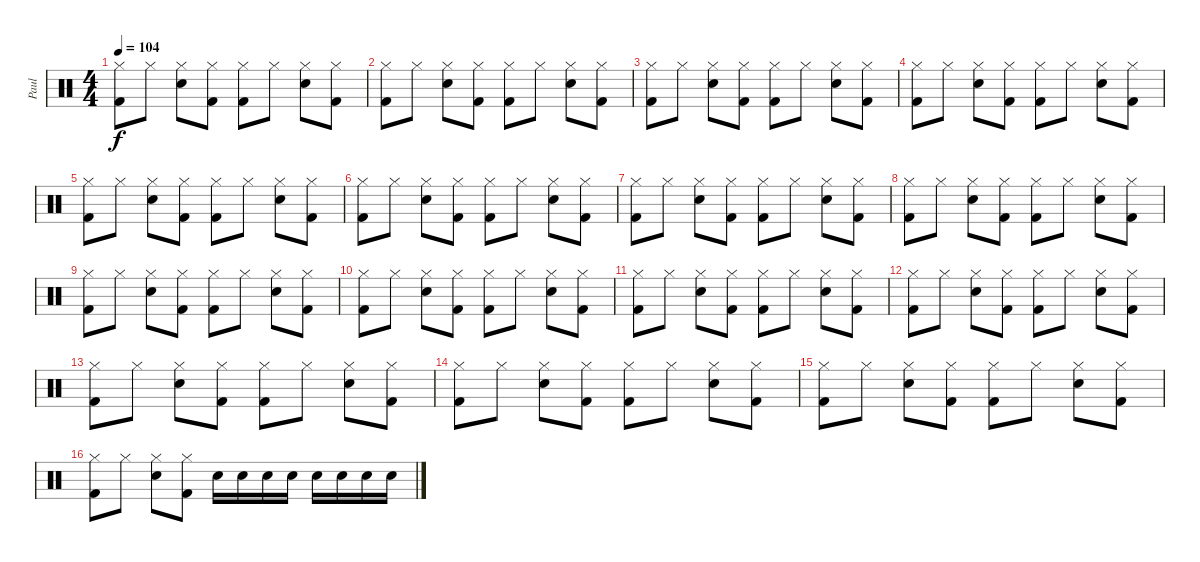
\track ("Paul" "Paul") {instrument percussion}
\staff {score}
\articulation defaults
\ts (4 4)
\tempo 104
\clef neutral
\ks c
("Hi-Hat (closed)" "Kick (hit) 2").8{dy f} "Hi-Hat (closed)".8 ("Hi-Hat (closed)" "Snare (hit) 2").8 ("Hi-Hat (closed)" "Kick (hit) 2").8 ("Hi-Hat (closed)" "Kick (hit) 2").8 "Hi-Hat (closed)".8 ("Hi-Hat (closed)" "Snare (hit) 2").8 ("Hi-Hat (closed)" "Kick (hit) 2").8 |
("Hi-Hat (closed)" "Kick (hit) 2").8 "Hi-Hat (closed)".8 ("Hi-Hat (closed)" "Snare (hit) 2").8 ("Hi-Hat (closed)" "Kick (hit) 2").8 ("Hi-Hat (closed)" "Kick (hit) 2").8 "Hi-Hat (closed)".8 ("Hi-Hat (closed)" "Snare (hit) 2").8 ("Hi-Hat (closed)" "Kick (hit) 2").8 |
("Hi-Hat (closed)" "Kick (hit) 2").8 "Hi-Hat (closed)".8 ("Hi-Hat (closed)" "Snare (hit) 2").8 ("Hi-Hat (closed)" "Kick (hit) 2").8 ("Hi-Hat (closed)" "Kick (hit) 2").8 "Hi-Hat (closed)".8 ("Hi-Hat (closed)" "Snare (hit) 2").8 ("Hi-Hat (closed)" "Kick (hit) 2").8 |
("Hi-Hat (closed)" "Kick (hit) 2").8 "Hi-Hat (closed)".8 ("Hi-Hat (closed)" "Snare (hit) 2").8 ("Hi-Hat (closed)" "Kick (hit) 2").8 ("Hi-Hat (closed)" "Kick (hit) 2").8 "Hi-Hat (closed)".8 ("Hi-Hat (closed)" "Snare (hit) 2").8 ("Hi-Hat (closed)" "Kick (hit) 2").8 |
("Hi-Hat (closed)" "Kick (hit) 2").8 "Hi-Hat (closed)".8 ("Hi-Hat (closed)" "Snare (hit) 2").8 ("Hi-Hat (closed)" "Kick (hit) 2").8 ("Hi-Hat (closed)" "Kick (hit) 2").8 "Hi-Hat (closed)".8 ("Hi-Hat (closed)" "Snare (hit) 2").8 ("Hi-Hat (closed)" "Kick (hit) 2").8 |
("Hi-Hat (closed)" "Kick (hit) 2").8 "Hi-Hat (closed)".8 ("Hi-Hat (closed)" "Snare (hit) 2").8 ("Hi-Hat (closed)" "Kick (hit) 2").8 ("Hi-Hat (closed)" "Kick (hit) 2").8 "Hi-Hat (closed)".8 ("Hi-Hat (closed)" "Snare (hit) 2").8 ("Hi-Hat (closed)" "Kick (hit) 2").8 |
("Hi-Hat (closed)" "Kick (hit) 2").8 "Hi-Hat (closed)".8 ("Hi-Hat (closed)" "Snare (hit) 2").8 ("Hi-Hat (closed)" "Kick (hit) 2").8 ("Hi-Hat (closed)" "Kick (hit) 2").8 "Hi-Hat (closed)".8 ("Hi-Hat (closed)" "Snare (hit) 2").8 ("Hi-Hat (closed)" "Kick (hit) 2").8 |
("Hi-Hat (closed)" "Kick (hit) 2").8 "Hi-Hat (closed)".8 ("Hi-Hat (closed)" "Snare (hit) 2").8 ("Hi-Hat (closed)" "Kick (hit) 2").8 ("Hi-Hat (closed)" "Kick (hit) 2").8 "Hi-Hat (closed)".8 ("Hi-Hat (closed)" "Snare (hit) 2").8 ("Hi-Hat (closed)" "Kick (hit) 2").8 |
("Hi-Hat (closed)" "Kick (hit) 2").8 "Hi-Hat (closed)".8 ("Hi-Hat (closed)" "Snare (hit) 2").8 ("Hi-Hat (closed)" "Kick (hit) 2").8 ("Hi-Hat (closed)" "Kick (hit) 2").8 "Hi-Hat (closed)".8 ("Hi-Hat (closed)" "Snare (hit) 2").8 ("Hi-Hat (closed)" "Kick (hit) 2").8 |
("Hi-Hat (closed)" "Kick (hit) 2").8 "Hi-Hat (closed)".8 ("Hi-Hat (closed)" "Snare (hit) 2").8 ("Hi-Hat (closed)" "Kick (hit) 2").8 ("Hi-Hat (closed)" "Kick (hit) 2").8 "Hi-Hat (closed)".8 ("Hi-Hat (closed)" "Snare (hit) 2").8 ("Hi-Hat (closed)" "Kick (hit) 2").8 |
("Hi-Hat (closed)" "Kick (hit) 2").8 "Hi-Hat (closed)".8 ("Hi-Hat (closed)" "Snare (hit) 2").8 ("Hi-Hat (closed)" "Kick (hit) 2").8 ("Hi-Hat (closed)" "Kick (hit) 2").8 "Hi-Hat (closed)".8 ("Hi-Hat (closed)" "Snare (hit) 2").8 ("Hi-Hat (closed)" "Kick (hit) 2").8 |
("Hi-Hat (closed)" "Kick (hit) 2").8 "Hi-Hat (closed)".8 ("Hi-Hat (closed)" "Snare (hit) 2").8 ("Hi-Hat (closed)" "Kick (hit) 2").8 ("Hi-Hat (closed)" "Kick (hit) 2").8 "Hi-Hat (closed)".8 ("Hi-Hat (closed)" "Snare (hit) 2").8 ("Hi-Hat (closed)" "Kick (hit) 2").8 |
("Hi-Hat (closed)" "Kick (hit) 2").8 "Hi-Hat (closed)".8 ("Hi-Hat (closed)" "Snare (hit) 2").8 ("Hi-Hat (closed)" "Kick (hit) 2").8 ("Hi-Hat (closed)" "Kick (hit) 2").8 "Hi-Hat (closed)".8 ("Hi-Hat (closed)" "Snare (hit) 2").8 ("Hi-Hat (closed)" "Kick (hit) 2").8 |
("Hi-Hat (closed)" "Kick (hit) 2").8 "Hi-Hat (closed)".8 ("Hi-Hat (closed)" "Snare (hit) 2").8 ("Hi-Hat (closed)" "Kick (hit) 2").8 ("Hi-Hat (closed)" "Kick (hit) 2").8 "Hi-Hat (closed)".8 ("Hi-Hat (closed)" "Snare (hit) 2").8 ("Hi-Hat (closed)" "Kick (hit) 2").8 |
("Hi-Hat (closed)" "Kick (hit) 2").8 "Hi-Hat (closed)".8 ("Hi-Hat (closed)" "Snare (hit) 2").8 ("Hi-Hat (closed)" "Kick (hit) 2").8 ("Hi-Hat (closed)" "Kick (hit) 2").8 "Hi-Hat (closed)".8 ("Hi-Hat (closed)" "Snare (hit) 2").8 ("Hi-Hat (closed)" "Kick (hit) 2").8 |
("Hi-Hat (closed)" "Kick (hit) 2").8 "Hi-Hat (closed)".8 ("Hi-Hat (closed)" "Snare (hit) 2").8 ("Hi-Hat (closed)" "Kick (hit) 2").8 "Snare (hit) 2".16 "Snare (hit) 2".16 "Snare (hit) 2".16 "Snare (hit) 2".16 "Snare (hit) 2".16 "Snare (hit) 2".16 "Snare (hit) 2".16 "Snare (hit) 2".16
